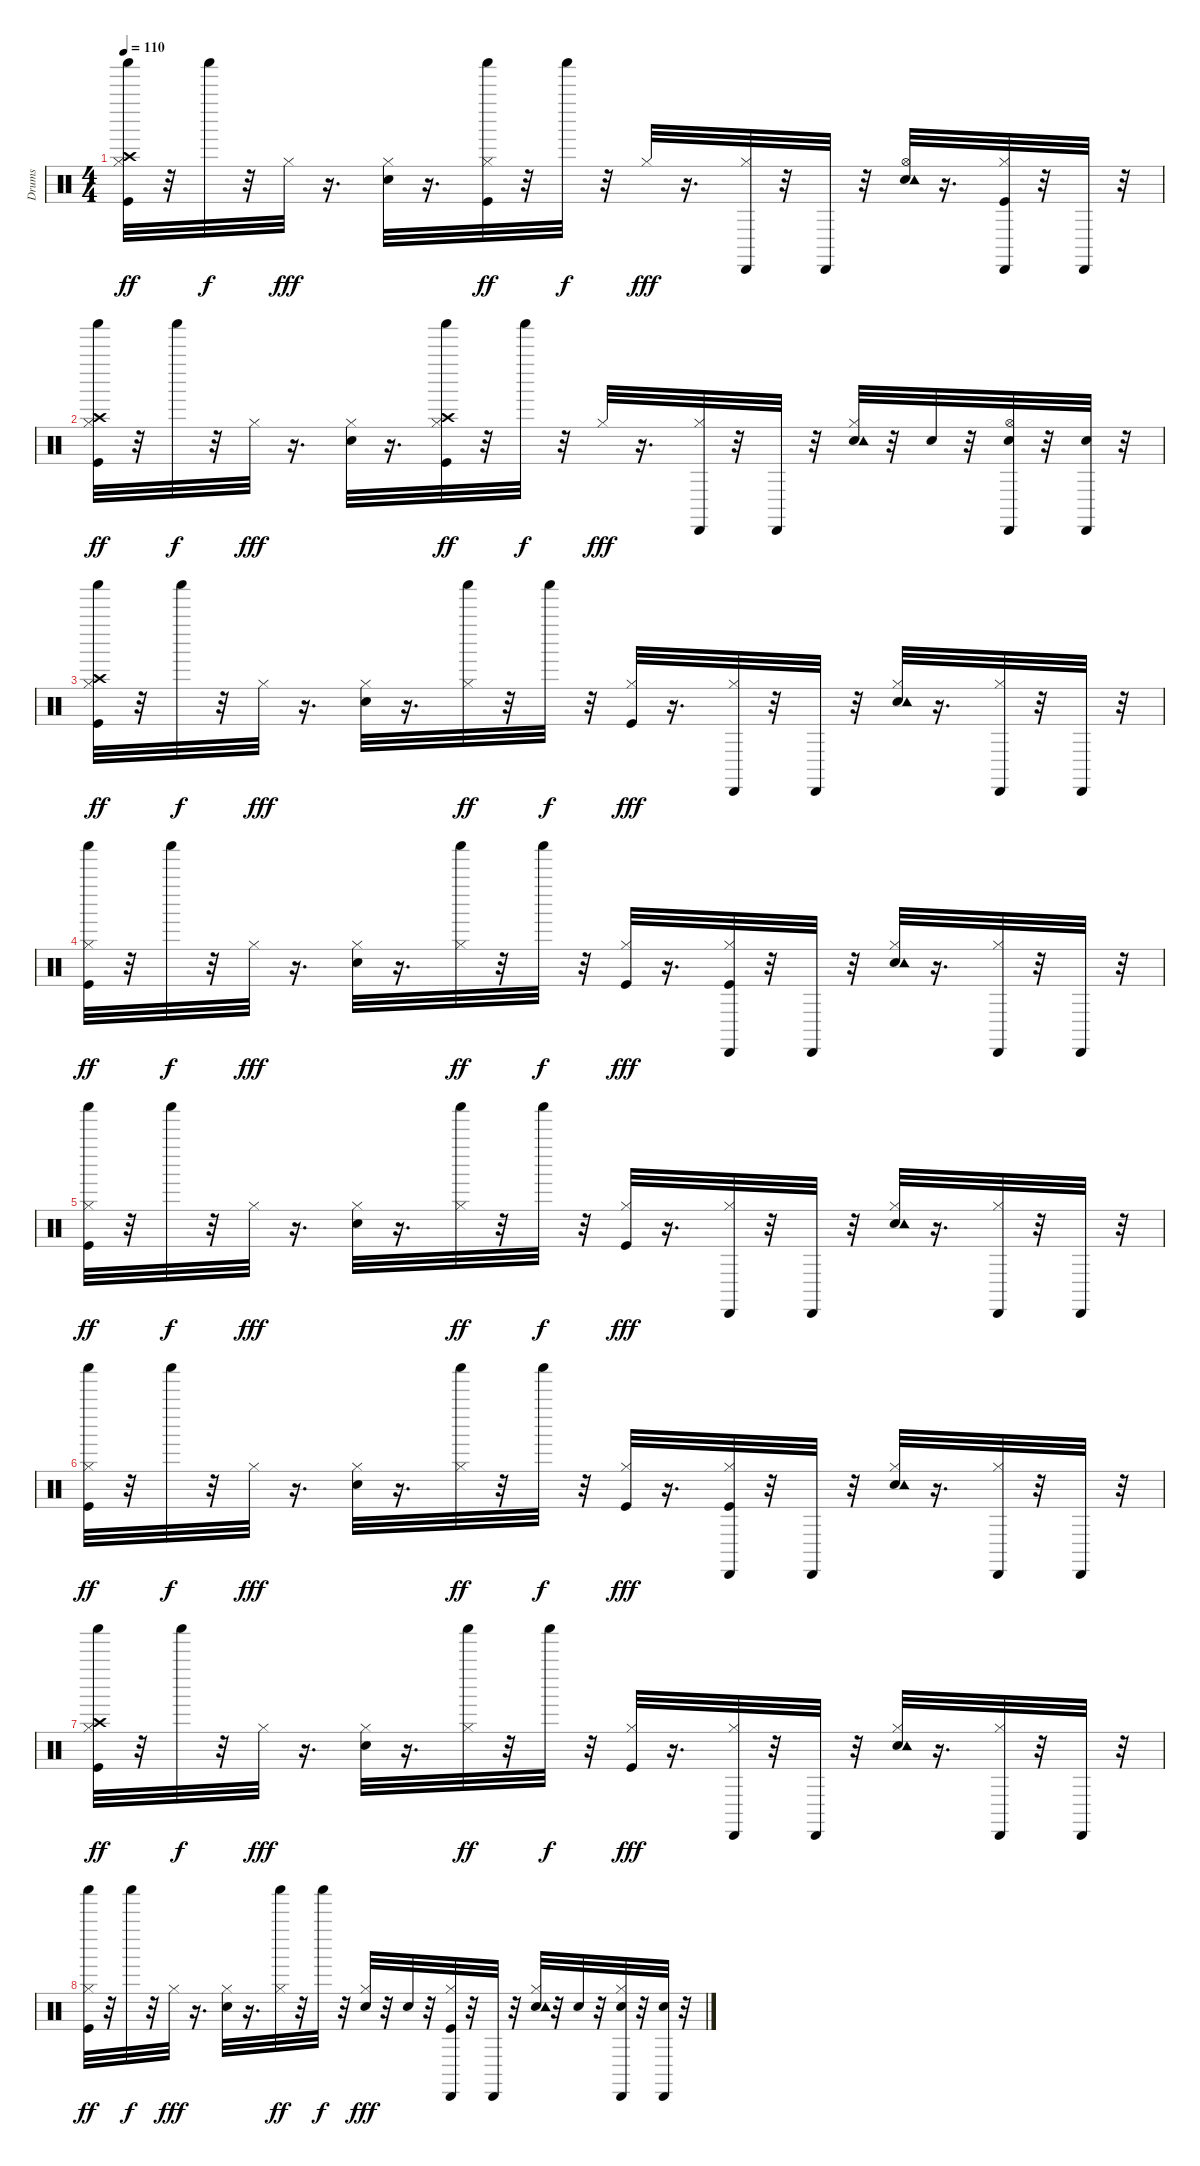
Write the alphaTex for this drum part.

\track ("Drums               " "Drums     ") {instrument percussion}
\staff {score}
\articulation defaults
\ts (4 4)
\tempo 110
\clef neutral
\ks c
("Kick (hit)" "Hi-Hat (closed)" "Crash high (hit)" "Shaker (hit)").32{dy ff} r.32 "Shaker (hit)".32{dy f} r.32 "Hi-Hat (closed)".32{dy fff} r.16{d} ("Electric Snare (hit)" "Hi-Hat (closed)").32 r.16{d} ("Kick (hit)" "Hi-Hat (closed)" "Shaker (hit)").32{dy ff} r.32 "Shaker (hit)".32{dy f} r.32 "Hi-Hat (closed)".32{dy fff} r.16{d} ("Hi-Hat (closed)" "Cabasa (hit)").32 r.32 "Cabasa (hit)".32 r.32 ("Electric Snare (hit)" "Hi-Hat (open)" "Tambourine (hit)").32 r.16{d} ("Kick (hit)" "Hi-Hat (closed)" "Cabasa (hit)").32 r.32 "Cabasa (hit)".32 r.32 |
("Kick (hit)" "Hi-Hat (closed)" "Crash high (hit)" "Shaker (hit)").32{dy ff} r.32 "Shaker (hit)".32{dy f} r.32 "Hi-Hat (closed)".32{dy fff} r.16{d} ("Electric Snare (hit)" "Hi-Hat (closed)").32 r.16{d} ("Kick (hit)" "Hi-Hat (closed)" "Crash high (hit)" "Shaker (hit)").32{dy ff} r.32 "Shaker (hit)".32{dy f} r.32 "Hi-Hat (closed)".32{dy fff} r.16{d} ("Hi-Hat (closed)" "Cabasa (hit)").32 r.32 "Cabasa (hit)".32 r.32 ("Electric Snare (hit)" "Hi-Hat (closed)" "Tambourine (hit)").32 r.32 "Electric Snare (hit)".32 r.32 ("Electric Snare (hit)" "Hi-Hat (open)" "Cabasa (hit)").32 r.32 ("Electric Snare (hit)" "Cabasa (hit)").32 r.32 |
("Kick (hit)" "Hi-Hat (closed)" "Crash high (hit)" "Shaker (hit)").32{dy ff} r.32 "Shaker (hit)".32{dy f} r.32 "Hi-Hat (closed)".32{dy fff} r.16{d} ("Electric Snare (hit)" "Hi-Hat (closed)").32 r.16{d} ("Hi-Hat (closed)" "Shaker (hit)").32{dy ff} r.32 "Shaker (hit)".32{dy f} r.32 ("Kick (hit)" "Hi-Hat (closed)").32{dy fff} r.16{d} ("Hi-Hat (closed)" "Cabasa (hit)").32 r.32 "Cabasa (hit)".32 r.32 ("Electric Snare (hit)" "Hi-Hat (closed)" "Tambourine (hit)").32 r.16{d} ("Hi-Hat (closed)" "Cabasa (hit)").32 r.32 "Cabasa (hit)".32 r.32 |
("Kick (hit)" "Hi-Hat (closed)" "Shaker (hit)").32{dy ff} r.32 "Shaker (hit)".32{dy f} r.32 "Hi-Hat (closed)".32{dy fff} r.16{d} ("Electric Snare (hit)" "Hi-Hat (closed)").32 r.16{d} ("Hi-Hat (closed)" "Shaker (hit)").32{dy ff} r.32 "Shaker (hit)".32{dy f} r.32 ("Kick (hit)" "Hi-Hat (closed)").32{dy fff} r.16{d} ("Kick (hit)" "Hi-Hat (closed)" "Cabasa (hit)").32 r.32 "Cabasa (hit)".32 r.32 ("Electric Snare (hit)" "Hi-Hat (closed)" "Tambourine (hit)").32 r.16{d} ("Hi-Hat (closed)" "Cabasa (hit)").32 r.32 "Cabasa (hit)".32 r.32 |
("Kick (hit)" "Hi-Hat (closed)" "Shaker (hit)").32{dy ff} r.32 "Shaker (hit)".32{dy f} r.32 "Hi-Hat (closed)".32{dy fff} r.16{d} ("Electric Snare (hit)" "Hi-Hat (closed)").32 r.16{d} ("Hi-Hat (closed)" "Shaker (hit)").32{dy ff} r.32 "Shaker (hit)".32{dy f} r.32 ("Kick (hit)" "Hi-Hat (closed)").32{dy fff} r.16{d} ("Hi-Hat (closed)" "Cabasa (hit)").32 r.32 "Cabasa (hit)".32 r.32 ("Electric Snare (hit)" "Hi-Hat (closed)" "Tambourine (hit)").32 r.16{d} ("Hi-Hat (closed)" "Cabasa (hit)").32 r.32 "Cabasa (hit)".32 r.32 |
("Kick (hit)" "Hi-Hat (closed)" "Shaker (hit)").32{dy ff} r.32 "Shaker (hit)".32{dy f} r.32 "Hi-Hat (closed)".32{dy fff} r.16{d} ("Electric Snare (hit)" "Hi-Hat (closed)").32 r.16{d} ("Hi-Hat (closed)" "Shaker (hit)").32{dy ff} r.32 "Shaker (hit)".32{dy f} r.32 ("Kick (hit)" "Hi-Hat (closed)").32{dy fff} r.16{d} ("Kick (hit)" "Hi-Hat (closed)" "Cabasa (hit)").32 r.32 "Cabasa (hit)".32 r.32 ("Electric Snare (hit)" "Hi-Hat (closed)" "Tambourine (hit)").32 r.16{d} ("Hi-Hat (closed)" "Cabasa (hit)").32 r.32 "Cabasa (hit)".32 r.32 |
("Kick (hit)" "Hi-Hat (closed)" "Crash high (hit)" "Shaker (hit)").32{dy ff} r.32 "Shaker (hit)".32{dy f} r.32 "Hi-Hat (closed)".32{dy fff} r.16{d} ("Electric Snare (hit)" "Hi-Hat (closed)").32 r.16{d} ("Hi-Hat (closed)" "Shaker (hit)").32{dy ff} r.32 "Shaker (hit)".32{dy f} r.32 ("Kick (hit)" "Hi-Hat (closed)").32{dy fff} r.16{d} ("Hi-Hat (closed)" "Cabasa (hit)").32 r.32 "Cabasa (hit)".32 r.32 ("Electric Snare (hit)" "Hi-Hat (closed)" "Tambourine (hit)").32 r.16{d} ("Hi-Hat (closed)" "Cabasa (hit)").32 r.32 "Cabasa (hit)".32 r.32 |
("Kick (hit)" "Hi-Hat (closed)" "Shaker (hit)").32{dy ff} r.32 "Shaker (hit)".32{dy f} r.32 "Hi-Hat (closed)".32{dy fff} r.16{d} ("Electric Snare (hit)" "Hi-Hat (closed)").32 r.16{d} ("Hi-Hat (closed)" "Shaker (hit)").32{dy ff} r.32 "Shaker (hit)".32{dy f} r.32 ("Electric Snare (hit)" "Hi-Hat (closed)").32{dy fff} r.32 "Electric Snare (hit)".32 r.32 ("Kick (hit)" "Hi-Hat (closed)" "Cabasa (hit)").32 r.32 "Cabasa (hit)".32 r.32 ("Electric Snare (hit)" "Hi-Hat (closed)" "Tambourine (hit)").32 r.32 "Electric Snare (hit)".32 r.32 ("Electric Snare (hit)" "Hi-Hat (closed)" "Cabasa (hit)").32 r.32 ("Electric Snare (hit)" "Cabasa (hit)").32 r.32
